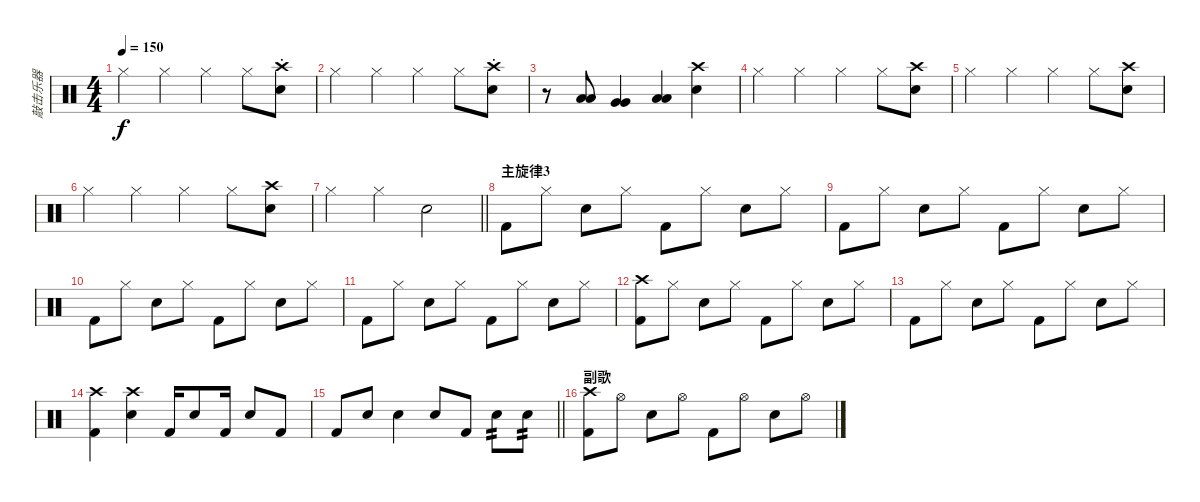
\track ("敲击乐器" "敲击乐器") {instrument percussion}
\staff {score}
\articulation defaults
\ts (4 4)
\tempo 150
\clef neutral
\ks c "Hi-Hat (closed)".4{dy f} "Hi-Hat (closed)".4 "Hi-Hat (closed)".4 "Hi-Hat (closed)".8
("Crash high (hit)"{st} "Snare (hit) 2").8 |
"Hi-Hat (closed)".4 "Hi-Hat (closed)".4 "Hi-Hat (closed)".4 "Hi-Hat (closed)".8 ("Crash high (hit)"{st} "Snare (hit) 2").8 |
r.8 ("Low Tom (hit)" "Low Tom (hit)").8 ("Very Low Tom (hit)" "Very Low Tom (hit)").4 ("Low Floor Tom (hit)" "Low Floor Tom (hit)").4 ("Crash high (hit)" "Snare (hit) 2").4 |
"Hi-Hat (closed)".4 "Hi-Hat (closed)".4 "Hi-Hat (closed)".4 "Hi-Hat (closed)".8 ("Crash high (hit)" "Snare (hit) 2").8 |
"Hi-Hat (closed)".4 "Hi-Hat (closed)".4 "Hi-Hat (closed)".4 "Hi-Hat (closed)".8 ("Crash high (hit)" "Snare (hit) 2").8 |
"Hi-Hat (closed)".4 "Hi-Hat (closed)".4 "Hi-Hat (closed)".4 "Hi-Hat (closed)".8 ("Crash high (hit)" "Snare (hit) 2").8 |
\barLineRight lightlight "Hi-Hat (closed)".4 "Hi-Hat (closed)".4 "Snare (hit) 2".2
|
\section ("" "主旋律3")
"Kick (hit) 2".8 "Hi-Hat (closed)".8 "Snare (hit) 2".8 "Hi-Hat (closed)".8 "Kick (hit) 2".8 "Hi-Hat (closed)".8 "Snare (hit) 2".8 "Hi-Hat (closed)".8 |
"Kick (hit) 2".8 "Hi-Hat (closed)".8 "Snare (hit) 2".8 "Hi-Hat (closed)".8 "Kick (hit) 2".8 "Hi-Hat (closed)".8 "Snare (hit) 2".8 "Hi-Hat (closed)".8 |
"Kick (hit) 2".8 "Hi-Hat (closed)".8 "Snare (hit) 2".8 "Hi-Hat (closed)".8 "Kick (hit) 2".8 "Hi-Hat (closed)".8 "Snare (hit) 2".8 "Hi-Hat (closed)".8 |
"Kick (hit) 2".8 "Hi-Hat (closed)".8 "Snare (hit) 2".8 "Hi-Hat (closed)".8 "Kick (hit) 2".8 "Hi-Hat (closed)".8 "Snare (hit) 2".8 "Hi-Hat (closed)".8 |
("Crash high (hit)" "Kick (hit) 2").8 "Hi-Hat (closed)".8 "Snare (hit) 2".8 "Hi-Hat (closed)".8 "Kick (hit) 2".8 "Hi-Hat (closed)".8 "Snare (hit) 2".8 "Hi-Hat (closed)".8 |
"Kick (hit) 2".8 "Hi-Hat (closed)".8 "Snare (hit) 2".8 "Hi-Hat (closed)".8 "Kick (hit) 2".8 "Hi-Hat (closed)".8 "Snare (hit) 2".8 "Hi-Hat (closed)".8 |
("Crash high (hit)" "Kick (hit) 2").4 ("Crash high (hit)" "Snare (hit) 2").4 "Kick (hit) 2".16 "Snare (hit) 2".8 "Kick (hit) 2".16 "Snare (hit) 2".8 "Kick (hit) 2".8 |
\barLineRight lightlight "Kick (hit) 2".8 "Snare (hit) 2".8 "Snare (hit) 2".4 "Snare (hit) 2".8 "Kick (hit) 2".8 "Snare (hit) 2".8{tp 2} "Snare (hit) 2".8{tp 2}
|
\section ("" "副歌")
("Crash high (hit)" "Kick (hit) 2").8 "Hi-Hat (open)".8 "Snare (hit) 2".8 "Hi-Hat (open)".8 "Kick (hit) 2".8 "Hi-Hat (open)".8 "Snare (hit) 2".8 "Hi-Hat (open)".8
